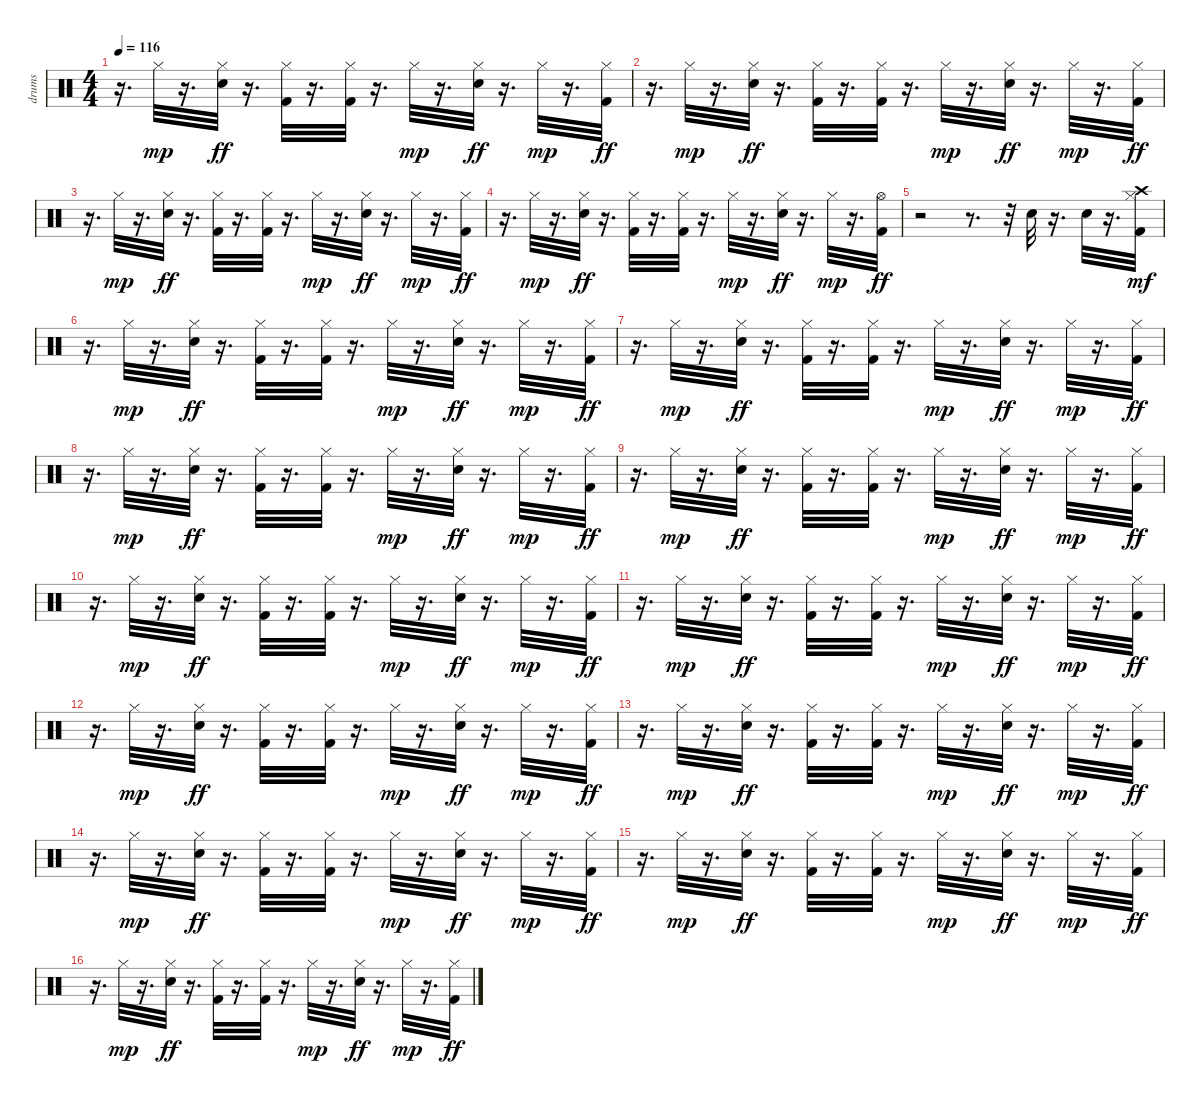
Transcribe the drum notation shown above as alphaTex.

\track ("drums" "drums") {instrument percussion}
\staff {score}
\articulation defaults
\ts (4 4)
\tempo 116
\clef neutral
\ks c
r.16{d dy ff} "Hi-Hat (closed)".32{dy mp} r.16{d} ("Hi-Hat (closed)" "Snare (hit) 2").32{dy ff} r.16{d} ("Hi-Hat (closed)" "Kick (hit) 2").32 r.16{d} ("Hi-Hat (closed)" "Kick (hit) 2").32 r.16{d} "Hi-Hat (closed)".32{dy mp} r.16{d} ("Hi-Hat (closed)" "Snare (hit) 2").32{dy ff} r.16{d} "Hi-Hat (closed)".32{dy mp} r.16{d} ("Hi-Hat (closed)" "Kick (hit) 2").32{dy ff} |
r.16{d} "Hi-Hat (closed)".32{dy mp} r.16{d} ("Hi-Hat (closed)" "Snare (hit) 2").32{dy ff} r.16{d} ("Hi-Hat (closed)" "Kick (hit) 2").32 r.16{d} ("Hi-Hat (closed)" "Kick (hit) 2").32 r.16{d} "Hi-Hat (closed)".32{dy mp} r.16{d} ("Hi-Hat (closed)" "Snare (hit) 2").32{dy ff} r.16{d} "Hi-Hat (closed)".32{dy mp} r.16{d} ("Hi-Hat (closed)" "Kick (hit) 2").32{dy ff} |
r.16{d} "Hi-Hat (closed)".32{dy mp} r.16{d} ("Hi-Hat (closed)" "Snare (hit) 2").32{dy ff} r.16{d} ("Hi-Hat (closed)" "Kick (hit) 2").32 r.16{d} ("Hi-Hat (closed)" "Kick (hit) 2").32 r.16{d} "Hi-Hat (closed)".32{dy mp} r.16{d} ("Hi-Hat (closed)" "Snare (hit) 2").32{dy ff} r.16{d} "Hi-Hat (closed)".32{dy mp} r.16{d} ("Hi-Hat (closed)" "Kick (hit) 2").32{dy ff} |
r.16{d} "Hi-Hat (closed)".32{dy mp} r.16{d} ("Hi-Hat (closed)" "Snare (hit) 2").32{dy ff} r.16{d} ("Hi-Hat (closed)" "Kick (hit) 2").32 r.16{d} ("Hi-Hat (closed)" "Kick (hit) 2").32 r.16{d} "Hi-Hat (closed)".32{dy mp} r.16{d} ("Hi-Hat (closed)" "Snare (hit) 2").32{dy ff} r.16{d} "Hi-Hat (closed)".32{dy mp} r.16{d} ("Hi-Hat (open)" "Kick (hit) 2").32{dy ff} |
r.2 r.8{d} r.32 "Snare (hit) 2".32 r.16{d} "Snare (hit) 2".32 r.16{d} ("Hi-Hat (closed)" "Kick (hit) 2" "Crash high (hit)").32{dy mf} |
r.16{d} "Hi-Hat (closed)".32{dy mp} r.16{d} ("Hi-Hat (closed)" "Snare (hit) 2").32{dy ff} r.16{d} ("Hi-Hat (closed)" "Kick (hit) 2").32 r.16{d} ("Hi-Hat (closed)" "Kick (hit) 2").32 r.16{d} "Hi-Hat (closed)".32{dy mp} r.16{d} ("Hi-Hat (closed)" "Snare (hit) 2").32{dy ff} r.16{d} "Hi-Hat (closed)".32{dy mp} r.16{d} ("Hi-Hat (closed)" "Kick (hit) 2").32{dy ff} |
r.16{d} "Hi-Hat (closed)".32{dy mp} r.16{d} ("Hi-Hat (closed)" "Snare (hit) 2").32{dy ff} r.16{d} ("Hi-Hat (closed)" "Kick (hit) 2").32 r.16{d} ("Hi-Hat (closed)" "Kick (hit) 2").32 r.16{d} "Hi-Hat (closed)".32{dy mp} r.16{d} ("Hi-Hat (closed)" "Snare (hit) 2").32{dy ff} r.16{d} "Hi-Hat (closed)".32{dy mp} r.16{d} ("Hi-Hat (closed)" "Kick (hit) 2").32{dy ff} |
r.16{d} "Hi-Hat (closed)".32{dy mp} r.16{d} ("Hi-Hat (closed)" "Snare (hit) 2").32{dy ff} r.16{d} ("Hi-Hat (closed)" "Kick (hit) 2").32 r.16{d} ("Hi-Hat (closed)" "Kick (hit) 2").32 r.16{d} "Hi-Hat (closed)".32{dy mp} r.16{d} ("Hi-Hat (closed)" "Snare (hit) 2").32{dy ff} r.16{d} "Hi-Hat (closed)".32{dy mp} r.16{d} ("Hi-Hat (closed)" "Kick (hit) 2").32{dy ff} |
r.16{d} "Hi-Hat (closed)".32{dy mp} r.16{d} ("Hi-Hat (closed)" "Snare (hit) 2").32{dy ff} r.16{d} ("Hi-Hat (closed)" "Kick (hit) 2").32 r.16{d} ("Hi-Hat (closed)" "Kick (hit) 2").32 r.16{d} "Hi-Hat (closed)".32{dy mp} r.16{d} ("Hi-Hat (closed)" "Snare (hit) 2").32{dy ff} r.16{d} "Hi-Hat (closed)".32{dy mp} r.16{d} ("Hi-Hat (closed)" "Kick (hit) 2").32{dy ff} |
r.16{d} "Hi-Hat (closed)".32{dy mp} r.16{d} ("Hi-Hat (closed)" "Snare (hit) 2").32{dy ff} r.16{d} ("Hi-Hat (closed)" "Kick (hit) 2").32 r.16{d} ("Hi-Hat (closed)" "Kick (hit) 2").32 r.16{d} "Hi-Hat (closed)".32{dy mp} r.16{d} ("Hi-Hat (closed)" "Snare (hit) 2").32{dy ff} r.16{d} "Hi-Hat (closed)".32{dy mp} r.16{d} ("Hi-Hat (closed)" "Kick (hit) 2").32{dy ff} |
r.16{d} "Hi-Hat (closed)".32{dy mp} r.16{d} ("Hi-Hat (closed)" "Snare (hit) 2").32{dy ff} r.16{d} ("Hi-Hat (closed)" "Kick (hit) 2").32 r.16{d} ("Hi-Hat (closed)" "Kick (hit) 2").32 r.16{d} "Hi-Hat (closed)".32{dy mp} r.16{d} ("Hi-Hat (closed)" "Snare (hit) 2").32{dy ff} r.16{d} "Hi-Hat (closed)".32{dy mp} r.16{d} ("Hi-Hat (closed)" "Kick (hit) 2").32{dy ff} |
r.16{d} "Hi-Hat (closed)".32{dy mp} r.16{d} ("Hi-Hat (closed)" "Snare (hit) 2").32{dy ff} r.16{d} ("Hi-Hat (closed)" "Kick (hit) 2").32 r.16{d} ("Hi-Hat (closed)" "Kick (hit) 2").32 r.16{d} "Hi-Hat (closed)".32{dy mp} r.16{d} ("Hi-Hat (closed)" "Snare (hit) 2").32{dy ff} r.16{d} "Hi-Hat (closed)".32{dy mp} r.16{d} ("Hi-Hat (closed)" "Kick (hit) 2").32{dy ff} |
r.16{d} "Hi-Hat (closed)".32{dy mp} r.16{d} ("Hi-Hat (closed)" "Snare (hit) 2").32{dy ff} r.16{d} ("Hi-Hat (closed)" "Kick (hit) 2").32 r.16{d} ("Hi-Hat (closed)" "Kick (hit) 2").32 r.16{d} "Hi-Hat (closed)".32{dy mp} r.16{d} ("Hi-Hat (closed)" "Snare (hit) 2").32{dy ff} r.16{d} "Hi-Hat (closed)".32{dy mp} r.16{d} ("Hi-Hat (closed)" "Kick (hit) 2").32{dy ff} |
r.16{d} "Hi-Hat (closed)".32{dy mp} r.16{d} ("Hi-Hat (closed)" "Snare (hit) 2").32{dy ff} r.16{d} ("Hi-Hat (closed)" "Kick (hit) 2").32 r.16{d} ("Hi-Hat (closed)" "Kick (hit) 2").32 r.16{d} "Hi-Hat (closed)".32{dy mp} r.16{d} ("Hi-Hat (closed)" "Snare (hit) 2").32{dy ff} r.16{d} "Hi-Hat (closed)".32{dy mp} r.16{d} ("Hi-Hat (closed)" "Kick (hit) 2").32{dy ff} |
r.16{d} "Hi-Hat (closed)".32{dy mp} r.16{d} ("Hi-Hat (closed)" "Snare (hit) 2").32{dy ff} r.16{d} ("Hi-Hat (closed)" "Kick (hit) 2").32 r.16{d} ("Hi-Hat (closed)" "Kick (hit) 2").32 r.16{d} "Hi-Hat (closed)".32{dy mp} r.16{d} ("Hi-Hat (closed)" "Snare (hit) 2").32{dy ff} r.16{d} "Hi-Hat (closed)".32{dy mp} r.16{d} ("Hi-Hat (closed)" "Kick (hit) 2").32{dy ff} |
r.16{d} "Hi-Hat (closed)".32{dy mp} r.16{d} ("Hi-Hat (closed)" "Snare (hit) 2").32{dy ff} r.16{d} ("Hi-Hat (closed)" "Kick (hit) 2").32 r.16{d} ("Hi-Hat (closed)" "Kick (hit) 2").32 r.16{d} "Hi-Hat (closed)".32{dy mp} r.16{d} ("Hi-Hat (closed)" "Snare (hit) 2").32{dy ff} r.16{d} "Hi-Hat (closed)".32{dy mp} r.16{d} ("Hi-Hat (closed)" "Kick (hit) 2").32{dy ff}
